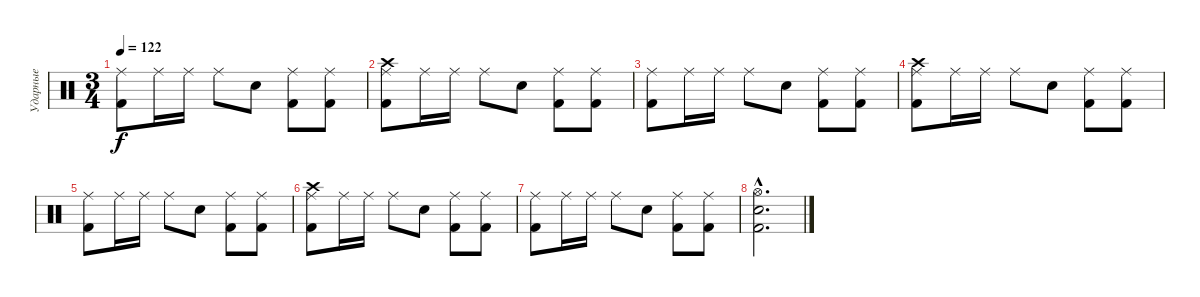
\track ("Ударные" "Ударные") {instrument percussion}
\staff {score}
\articulation defaults
\ts (3 4)
\tempo 122
\clef neutral
\ks c
("Kick (hit) 2" "Ride (middle)").8{dy f} "Ride (middle)".16 "Ride (middle)".16 "Ride (middle)".8 "Electric Snare (hit)".8 ("Kick (hit) 2" "Ride (middle)").8 ("Kick (hit) 2" "Ride (middle)").8 |
("Crash high (hit)" "Kick (hit) 2" "Ride (middle)").8 "Ride (middle)".16 "Ride (middle)".16 "Ride (middle)".8 "Electric Snare (hit)".8 ("Kick (hit) 2" "Ride (middle)").8 ("Kick (hit) 2" "Ride (middle)").8 |
("Kick (hit) 2" "Ride (middle)").8 "Ride (middle)".16 "Ride (middle)".16 "Ride (middle)".8 "Electric Snare (hit)".8 ("Kick (hit) 2" "Ride (middle)").8 ("Kick (hit) 2" "Ride (middle)").8 |
("Crash high (hit)" "Kick (hit) 2" "Ride (middle)").8 "Ride (middle)".16 "Ride (middle)".16 "Ride (middle)".8 "Electric Snare (hit)".8 ("Kick (hit) 2" "Ride (middle)").8 ("Kick (hit) 2" "Ride (middle)").8 |
("Kick (hit) 2" "Ride (middle)").8 "Ride (middle)".16 "Ride (middle)".16 "Ride (middle)".8 "Electric Snare (hit)".8 ("Kick (hit) 2" "Ride (middle)").8 ("Kick (hit) 2" "Ride (middle)").8 |
("Crash high (hit)" "Kick (hit) 2" "Ride (middle)").8 "Ride (middle)".16 "Ride (middle)".16 "Ride (middle)".8 "Electric Snare (hit)".8 ("Kick (hit) 2" "Ride (middle)").8 ("Kick (hit) 2" "Ride (middle)").8 |
("Kick (hit) 2" "Ride (middle)").8 "Ride (middle)".16 "Ride (middle)".16 "Ride (middle)".8 "Electric Snare (hit)".8 ("Kick (hit) 2" "Ride (middle)").8 ("Kick (hit) 2" "Ride (middle)").8 |
("Electric Snare (hit)"{hac} "Hi-Hat (open)"{hac} "Kick (hit) 2"{hac}).2{d}
